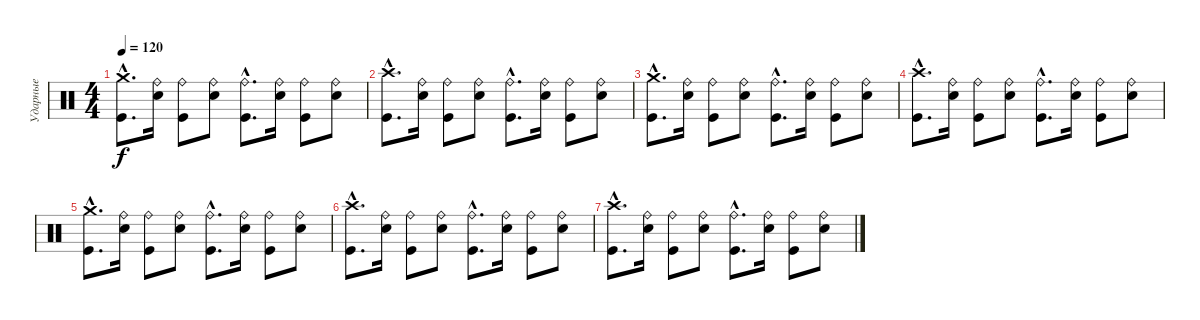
\track ("Ударные" "Ударные") {instrument percussion}
\staff {score}
\articulation defaults
\ts (4 4)
\tempo 120
\clef neutral
\ks c
("Crash medium (hit)"{hac} "Kick (hit)"{hac}).8{d dy f volume 10} ("Ride (bell)" "Electric Snare (hit)").16 ("Ride (bell)" "Kick (hit)").8 ("Ride (bell)" "Electric Snare (hit)").8 ("Ride (bell)"{hac} "Kick (hit)"{hac}).8{d} ("Ride (bell)" "Electric Snare (hit)").16 ("Ride (bell)" "Kick (hit)").8 ("Ride (bell)" "Electric Snare (hit)").8 |
("Crash high (hit)"{hac} "Kick (hit)"{hac}).8{d} ("Ride (bell)" "Electric Snare (hit)").16 ("Ride (bell)" "Kick (hit)").8 ("Ride (bell)" "Electric Snare (hit)").8 ("Ride (bell)"{hac} "Kick (hit)"{hac}).8{d} ("Ride (bell)" "Electric Snare (hit)").16 ("Ride (bell)" "Kick (hit)").8 ("Ride (bell)" "Electric Snare (hit)").8 |
("Crash medium (hit)"{hac} "Kick (hit)"{hac}).8{d volume 8} ("Ride (bell)" "Electric Snare (hit)").16 ("Ride (bell)" "Kick (hit)").8 ("Ride (bell)" "Electric Snare (hit)").8 ("Ride (bell)"{hac} "Kick (hit)"{hac}).8{d} ("Ride (bell)" "Electric Snare (hit)").16 ("Ride (bell)" "Kick (hit)").8 ("Ride (bell)" "Electric Snare (hit)").8 |
("Crash high (hit)"{hac} "Kick (hit)"{hac}).8{d} ("Ride (bell)" "Electric Snare (hit)").16 ("Ride (bell)" "Kick (hit)").8 ("Ride (bell)" "Electric Snare (hit)").8 ("Ride (bell)"{hac} "Kick (hit)"{hac}).8{d} ("Ride (bell)" "Electric Snare (hit)").16 ("Ride (bell)" "Kick (hit)").8 ("Ride (bell)" "Electric Snare (hit)").8 |
("Crash medium (hit)"{hac} "Kick (hit)"{hac}).8{d volume 5} ("Ride (bell)" "Electric Snare (hit)").16 ("Ride (bell)" "Kick (hit)").8 ("Ride (bell)" "Electric Snare (hit)").8 ("Ride (bell)"{hac} "Kick (hit)"{hac}).8{d} ("Ride (bell)" "Electric Snare (hit)").16 ("Ride (bell)" "Kick (hit)").8 ("Ride (bell)" "Electric Snare (hit)").8 |
("Crash high (hit)"{hac} "Kick (hit)"{hac}).8{d volume 2} ("Ride (bell)" "Electric Snare (hit)").16 ("Ride (bell)" "Kick (hit)").8 ("Ride (bell)" "Electric Snare (hit)").8 ("Ride (bell)"{hac} "Kick (hit)"{hac}).8{d} ("Ride (bell)" "Electric Snare (hit)").16 ("Ride (bell)" "Kick (hit)").8 ("Ride (bell)" "Electric Snare (hit)").8 |
("Crash high (hit)"{hac} "Kick (hit)"{hac}).8{d} ("Ride (bell)" "Electric Snare (hit)").16 ("Ride (bell)" "Kick (hit)").8 ("Ride (bell)" "Electric Snare (hit)").8 ("Ride (bell)"{hac} "Kick (hit)"{hac}).8{d} ("Ride (bell)" "Electric Snare (hit)").16 ("Ride (bell)" "Kick (hit)").8 ("Ride (bell)" "Electric Snare (hit)").8
